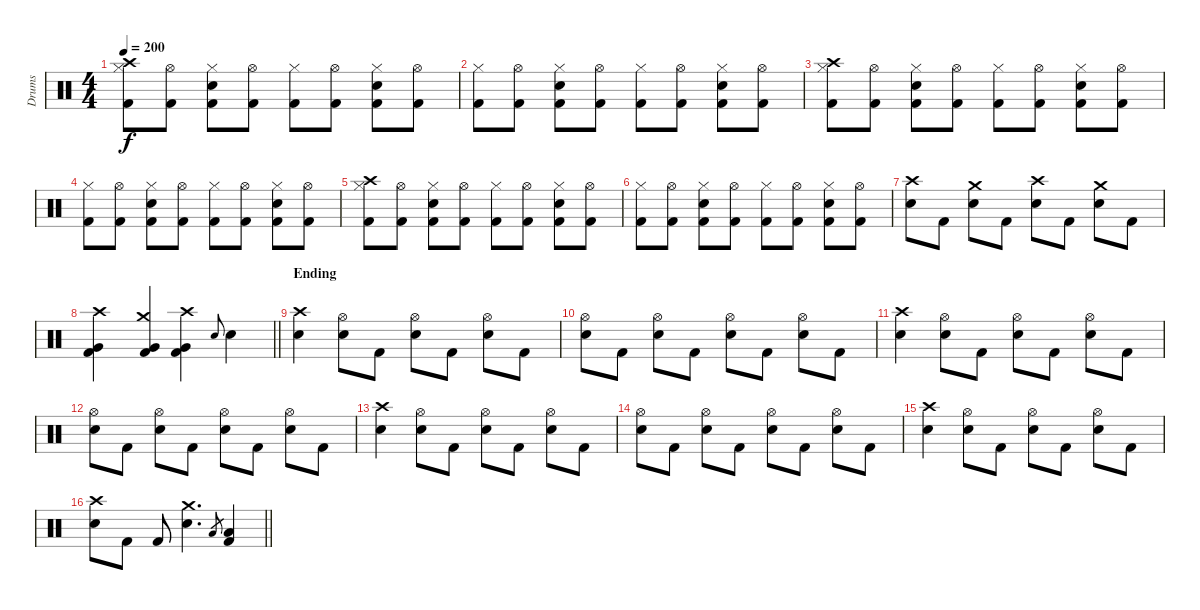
\track ("Drums" "Drums") {instrument percussion}
\staff {score}
\articulation defaults
\ts (4 4)
\tempo 200
\clef neutral
\ks c
("Crash high (hit)" "Hi-Hat (closed)" "Kick (hit) 2").8{dy f} ("Hi-Hat (open)" "Kick (hit) 2").8 ("Hi-Hat (closed)" "Snare (hit) 2" "Kick (hit) 2").8 ("Hi-Hat (open)" "Kick (hit) 2").8 ("Hi-Hat (closed)" "Kick (hit) 2").8 ("Hi-Hat (open)" "Kick (hit) 2").8 ("Hi-Hat (closed)" "Snare (hit) 2" "Kick (hit) 2").8 ("Hi-Hat (open)" "Kick (hit) 2").8 |
("Hi-Hat (closed)" "Kick (hit) 2").8 ("Hi-Hat (open)" "Kick (hit) 2").8 ("Hi-Hat (closed)" "Snare (hit) 2" "Kick (hit) 2").8 ("Hi-Hat (open)" "Kick (hit) 2").8 ("Hi-Hat (closed)" "Kick (hit) 2").8 ("Hi-Hat (open)" "Kick (hit) 2").8 ("Hi-Hat (closed)" "Snare (hit) 2" "Kick (hit) 2").8 ("Hi-Hat (open)" "Kick (hit) 2").8 |
("Crash high (hit)" "Hi-Hat (closed)" "Kick (hit) 2").8 ("Hi-Hat (open)" "Kick (hit) 2").8 ("Hi-Hat (closed)" "Snare (hit) 2" "Kick (hit) 2").8 ("Hi-Hat (open)" "Kick (hit) 2").8 ("Hi-Hat (closed)" "Kick (hit) 2").8 ("Hi-Hat (open)" "Kick (hit) 2").8 ("Hi-Hat (closed)" "Snare (hit) 2" "Kick (hit) 2").8 ("Hi-Hat (open)" "Kick (hit) 2").8 |
("Hi-Hat (closed)" "Kick (hit) 2").8 ("Hi-Hat (open)" "Kick (hit) 2").8 ("Hi-Hat (closed)" "Snare (hit) 2" "Kick (hit) 2").8 ("Hi-Hat (open)" "Kick (hit) 2").8 ("Hi-Hat (closed)" "Kick (hit) 2").8 ("Hi-Hat (open)" "Kick (hit) 2").8 ("Hi-Hat (closed)" "Snare (hit) 2" "Kick (hit) 2").8 ("Hi-Hat (open)" "Kick (hit) 2").8 |
("Crash high (hit)" "Hi-Hat (closed)" "Kick (hit) 2").8 ("Hi-Hat (open)" "Kick (hit) 2").8 ("Hi-Hat (closed)" "Snare (hit) 2" "Kick (hit) 2").8 ("Hi-Hat (open)" "Kick (hit) 2").8 ("Hi-Hat (closed)" "Kick (hit) 2").8 ("Hi-Hat (open)" "Kick (hit) 2").8 ("Hi-Hat (closed)" "Snare (hit) 2" "Kick (hit) 2").8 ("Hi-Hat (open)" "Kick (hit) 2").8 |
("Hi-Hat (closed)" "Kick (hit) 2").8 ("Hi-Hat (open)" "Kick (hit) 2").8 ("Hi-Hat (closed)" "Snare (hit) 2" "Kick (hit) 2").8 ("Hi-Hat (open)" "Kick (hit) 2").8 ("Hi-Hat (closed)" "Kick (hit) 2").8 ("Hi-Hat (open)" "Kick (hit) 2").8 ("Hi-Hat (closed)" "Snare (hit) 2" "Kick (hit) 2").8 ("Hi-Hat (open)" "Kick (hit) 2").8 |
("Crash high (hit)" "Snare (hit) 2").8 "Kick (hit) 2".8 ("Crash medium (hit)" "Snare (hit) 2").8 "Kick (hit) 2".8 ("Crash high (hit)" "Snare (hit) 2").8 "Kick (hit) 2".8 ("Crash medium (hit)" "Snare (hit) 2").8 "Kick (hit) 2".8 |
\barLineRight lightlight
("Crash high (hit)" "Very Low Tom (hit)" "Kick (hit) 2").4 ("Crash medium (hit)" "Very Low Tom (hit)" "Kick (hit) 2").4 ("Crash high (hit)" "Very Low Tom (hit)" "Kick (hit) 2").4 "Snare (hit) 2".8{gr onbeat} "Snare (hit) 2".4 |
\section ("" "Ending")
("Crash high (hit)" "Snare (hit) 2").4 ("Hi-Hat (open)" "Snare (hit) 2").8 "Kick (hit) 2".8 ("Hi-Hat (open)" "Snare (hit) 2").8 "Kick (hit) 2".8 ("Hi-Hat (open)" "Snare (hit) 2").8 "Kick (hit) 2".8 |
("Hi-Hat (open)" "Snare (hit) 2").8 "Kick (hit) 2".8 ("Hi-Hat (open)" "Snare (hit) 2").8 "Kick (hit) 2".8 ("Hi-Hat (open)" "Snare (hit) 2").8 "Kick (hit) 2".8 ("Hi-Hat (open)" "Snare (hit) 2").8 "Kick (hit) 2".8 |
("Crash high (hit)" "Snare (hit) 2").4 ("Hi-Hat (open)" "Snare (hit) 2").8 "Kick (hit) 2".8 ("Hi-Hat (open)" "Snare (hit) 2").8 "Kick (hit) 2".8 ("Hi-Hat (open)" "Snare (hit) 2").8 "Kick (hit) 2".8 |
("Hi-Hat (open)" "Snare (hit) 2").8 "Kick (hit) 2".8 ("Hi-Hat (open)" "Snare (hit) 2").8 "Kick (hit) 2".8 ("Hi-Hat (open)" "Snare (hit) 2").8 "Kick (hit) 2".8 ("Hi-Hat (open)" "Snare (hit) 2").8 "Kick (hit) 2".8 |
("Crash high (hit)" "Snare (hit) 2").4 ("Hi-Hat (open)" "Snare (hit) 2").8 "Kick (hit) 2".8 ("Hi-Hat (open)" "Snare (hit) 2").8 "Kick (hit) 2".8 ("Hi-Hat (open)" "Snare (hit) 2").8 "Kick (hit) 2".8 |
("Hi-Hat (open)" "Snare (hit) 2").8 "Kick (hit) 2".8 ("Hi-Hat (open)" "Snare (hit) 2").8 "Kick (hit) 2".8 ("Hi-Hat (open)" "Snare (hit) 2").8 "Kick (hit) 2".8 ("Hi-Hat (open)" "Snare (hit) 2").8 "Kick (hit) 2".8 |
("Crash high (hit)" "Snare (hit) 2").4 ("Hi-Hat (open)" "Snare (hit) 2").8 "Kick (hit) 2".8 ("Hi-Hat (open)" "Snare (hit) 2").8 "Kick (hit) 2".8 ("Hi-Hat (open)" "Snare (hit) 2").8 "Kick (hit) 2".8 |
\barLineRight lightlight
("Crash high (hit)" "Snare (hit) 2").8 "Kick (hit) 2".8 "Kick (hit) 2".8 ("Crash medium (hit)" "Snare (hit) 2").4{d} "Low Floor Tom (hit)".8{gr} ("Low Floor Tom (hit)" "Kick (hit) 2").4
